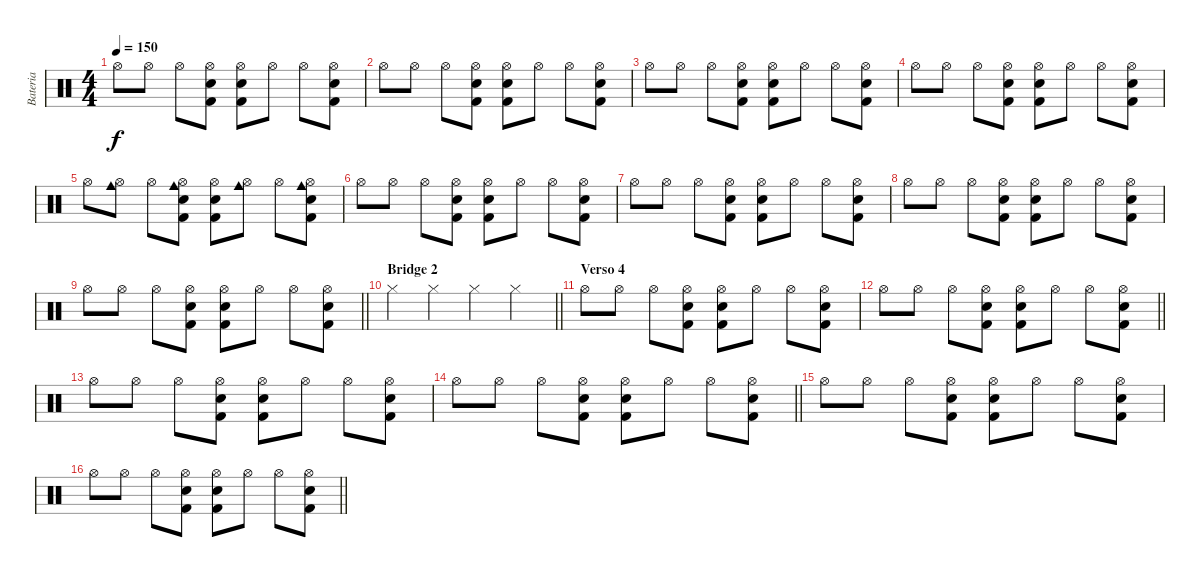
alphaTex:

\track ("Bateria" "Bateria") {instrument percussion}
\staff {score}
\articulation defaults
\ts (4 4)
\tempo 150
\clef neutral
\ks c "Hi-Hat (open)".8{dy f} "Hi-Hat (open)".8 "Hi-Hat (open)".8
("Hi-Hat (open)" "Electric Snare (hit)" "Kick (hit) 2").8 ("Hi-Hat (open)" "Electric Snare (hit)" "Kick (hit) 2").8 "Hi-Hat (open)".8 "Hi-Hat (open)".8 ("Hi-Hat (open)" "Electric Snare (hit)" "Kick (hit) 2").8 |
"Hi-Hat (open)".8 "Hi-Hat (open)".8 "Hi-Hat (open)".8 ("Hi-Hat (open)" "Electric Snare (hit)" "Kick (hit) 2").8 ("Hi-Hat (open)" "Electric Snare (hit)" "Kick (hit) 2").8 "Hi-Hat (open)".8 "Hi-Hat (open)".8 ("Hi-Hat (open)" "Electric Snare (hit)" "Kick (hit) 2").8 |
"Hi-Hat (open)".8 "Hi-Hat (open)".8 "Hi-Hat (open)".8 ("Hi-Hat (open)" "Electric Snare (hit)" "Kick (hit) 2").8 ("Hi-Hat (open)" "Electric Snare (hit)" "Kick (hit) 2").8 "Hi-Hat (open)".8 "Hi-Hat (open)".8 ("Hi-Hat (open)" "Electric Snare (hit)" "Kick (hit) 2").8 |
"Hi-Hat (open)".8 "Hi-Hat (open)".8 "Hi-Hat (open)".8 ("Hi-Hat (open)" "Electric Snare (hit)" "Kick (hit) 2").8 ("Hi-Hat (open)" "Electric Snare (hit)" "Kick (hit) 2").8 "Hi-Hat (open)".8 "Hi-Hat (open)".8 ("Hi-Hat (open)" "Electric Snare (hit)" "Kick (hit) 2").8 |
"Hi-Hat (open)".8 ("Cowbell medium (hit)" "Hi-Hat (open)").8 "Hi-Hat (open)".8 ("Cowbell medium (hit)" "Hi-Hat (open)" "Electric Snare (hit)" "Kick (hit) 2").8 ("Hi-Hat (open)" "Electric Snare (hit)" "Kick (hit) 2").8 ("Cowbell medium (hit)" "Hi-Hat (open)").8 "Hi-Hat (open)".8 ("Cowbell medium (hit)" "Hi-Hat (open)" "Electric Snare (hit)" "Kick (hit) 2").8 |
"Hi-Hat (open)".8 "Hi-Hat (open)".8 "Hi-Hat (open)".8 ("Hi-Hat (open)" "Electric Snare (hit)" "Kick (hit) 2").8 ("Hi-Hat (open)" "Electric Snare (hit)" "Kick (hit) 2").8 "Hi-Hat (open)".8 "Hi-Hat (open)".8 ("Hi-Hat (open)" "Electric Snare (hit)" "Kick (hit) 2").8 |
"Hi-Hat (open)".8 "Hi-Hat (open)".8 "Hi-Hat (open)".8 ("Hi-Hat (open)" "Electric Snare (hit)" "Kick (hit) 2").8 ("Hi-Hat (open)" "Electric Snare (hit)" "Kick (hit) 2").8 "Hi-Hat (open)".8 "Hi-Hat (open)".8 ("Hi-Hat (open)" "Electric Snare (hit)" "Kick (hit) 2").8 |
"Hi-Hat (open)".8 "Hi-Hat (open)".8 "Hi-Hat (open)".8 ("Hi-Hat (open)" "Electric Snare (hit)" "Kick (hit) 2").8 ("Hi-Hat (open)" "Electric Snare (hit)" "Kick (hit) 2").8 "Hi-Hat (open)".8 "Hi-Hat (open)".8 ("Hi-Hat (open)" "Electric Snare (hit)" "Kick (hit) 2").8 |
\barLineRight lightlight "Hi-Hat (open)".8 "Hi-Hat (open)".8 "Hi-Hat (open)".8
("Hi-Hat (open)" "Electric Snare (hit)" "Kick (hit) 2").8 ("Hi-Hat (open)" "Electric Snare (hit)" "Kick (hit) 2").8 "Hi-Hat (open)".8 "Hi-Hat (open)".8 ("Hi-Hat (open)" "Electric Snare (hit)" "Kick (hit) 2").8 |
\section ("" "Bridge 2")
\barLineRight lightlight "Hi-Hat (closed)".4 "Hi-Hat (closed)".4 "Hi-Hat (closed)".4 "Hi-Hat (closed)".4
|
\section ("" "Verso 4")
"Hi-Hat (open)".8 "Hi-Hat (open)".8 "Hi-Hat (open)".8 ("Hi-Hat (open)" "Electric Snare (hit)" "Kick (hit) 2").8 ("Hi-Hat (open)" "Electric Snare (hit)" "Kick (hit) 2").8 "Hi-Hat (open)".8 "Hi-Hat (open)".8 ("Hi-Hat (open)" "Electric Snare (hit)" "Kick (hit) 2").8 |
\barLineRight lightlight "Hi-Hat (open)".8 "Hi-Hat (open)".8 "Hi-Hat (open)".8
("Hi-Hat (open)" "Electric Snare (hit)" "Kick (hit) 2").8 ("Hi-Hat (open)" "Electric Snare (hit)" "Kick (hit) 2").8 "Hi-Hat (open)".8 "Hi-Hat (open)".8 ("Hi-Hat (open)" "Electric Snare (hit)" "Kick (hit) 2").8 |
"Hi-Hat (open)".8 "Hi-Hat (open)".8 "Hi-Hat (open)".8 ("Hi-Hat (open)" "Electric Snare (hit)" "Kick (hit) 2").8 ("Hi-Hat (open)" "Electric Snare (hit)" "Kick (hit) 2").8 "Hi-Hat (open)".8 "Hi-Hat (open)".8 ("Hi-Hat (open)" "Electric Snare (hit)" "Kick (hit) 2").8 |
\barLineRight lightlight "Hi-Hat (open)".8 "Hi-Hat (open)".8 "Hi-Hat (open)".8
("Hi-Hat (open)" "Electric Snare (hit)" "Kick (hit) 2").8 ("Hi-Hat (open)" "Electric Snare (hit)" "Kick (hit) 2").8 "Hi-Hat (open)".8 "Hi-Hat (open)".8 ("Hi-Hat (open)" "Electric Snare (hit)" "Kick (hit) 2").8 |
"Hi-Hat (open)".8 "Hi-Hat (open)".8 "Hi-Hat (open)".8 ("Hi-Hat (open)" "Electric Snare (hit)" "Kick (hit) 2").8 ("Hi-Hat (open)" "Electric Snare (hit)" "Kick (hit) 2").8 "Hi-Hat (open)".8 "Hi-Hat (open)".8 ("Hi-Hat (open)" "Electric Snare (hit)" "Kick (hit) 2").8 |
\barLineRight lightlight "Hi-Hat (open)".8 "Hi-Hat (open)".8 "Hi-Hat (open)".8
("Hi-Hat (open)" "Electric Snare (hit)" "Kick (hit) 2").8 ("Hi-Hat (open)" "Electric Snare (hit)" "Kick (hit) 2").8 "Hi-Hat (open)".8 "Hi-Hat (open)".8 ("Hi-Hat (open)" "Electric Snare (hit)" "Kick (hit) 2").8
